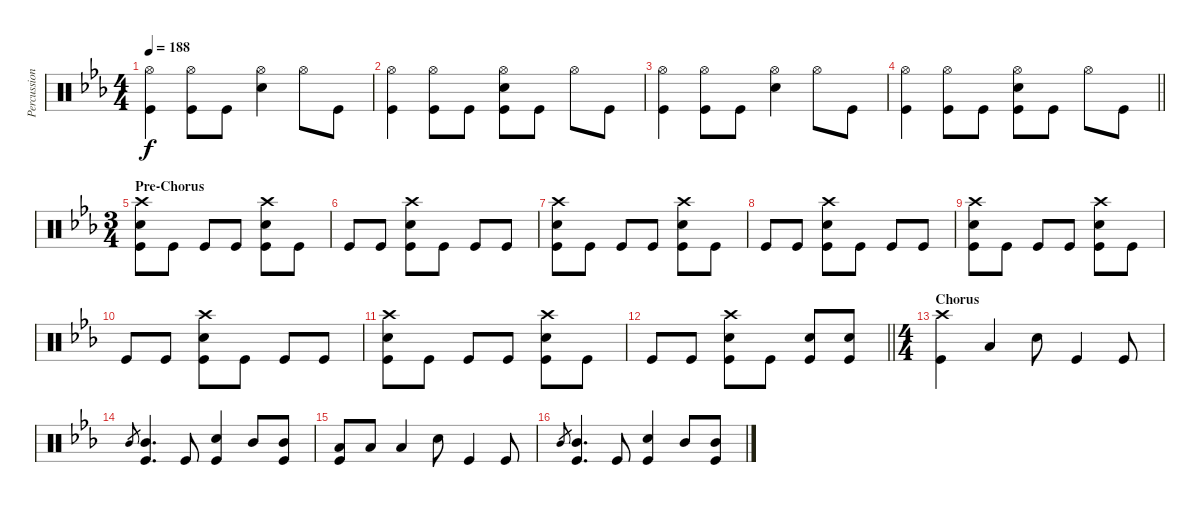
\track ("Percussion" "Percussion") {instrument percussion}
\staff {score}
\articulation defaults
\ts (4 4)
\tempo 188
\clef neutral
\ks eb
("Hi-Hat (open)" "Kick (hit)").4{dy f} ("Hi-Hat (open)" "Kick (hit)").8 "Kick (hit)".8 ("Hi-Hat (open)" "Electric Snare (hit)").4 "Hi-Hat (open)".8 "Kick (hit)".8 |
("Hi-Hat (open)" "Kick (hit)").4 ("Hi-Hat (open)" "Kick (hit)").8 "Kick (hit)".8 ("Hi-Hat (open)" "Electric Snare (hit)" "Kick (hit)").8 "Kick (hit)".8 "Hi-Hat (open)".8 "Kick (hit)".8 |
("Hi-Hat (open)" "Kick (hit)").4 ("Hi-Hat (open)" "Kick (hit)").8 "Kick (hit)".8 ("Hi-Hat (open)" "Electric Snare (hit)").4 "Hi-Hat (open)".8 "Kick (hit)".8 |
\barLineRight lightlight
("Hi-Hat (open)" "Kick (hit)").4 ("Hi-Hat (open)" "Kick (hit)").8 "Kick (hit)".8 ("Hi-Hat (open)" "Electric Snare (hit)" "Kick (hit)").8 "Kick (hit)".8 "Hi-Hat (open)".8 "Kick (hit)".8 |
\ts (3 4)
\section ("" "Pre-Chorus")
("Crash high (hit)" "Electric Snare (hit)" "Kick (hit)").8 "Kick (hit)".8 "Kick (hit)".8 "Kick (hit)".8 ("Crash high (hit)" "Electric Snare (hit)" "Kick (hit)").8 "Kick (hit)".8 |
"Kick (hit)".8 "Kick (hit)".8 ("Crash high (hit)" "Electric Snare (hit)" "Kick (hit)").8 "Kick (hit)".8 "Kick (hit)".8 "Kick (hit)".8 |
("Crash high (hit)" "Electric Snare (hit)" "Kick (hit)").8 "Kick (hit)".8 "Kick (hit)".8 "Kick (hit)".8 ("Crash high (hit)" "Electric Snare (hit)" "Kick (hit)").8 "Kick (hit)".8 |
"Kick (hit)".8 "Kick (hit)".8 ("Crash high (hit)" "Electric Snare (hit)" "Kick (hit)").8 "Kick (hit)".8 "Kick (hit)".8 "Kick (hit)".8 |
("Crash high (hit)" "Electric Snare (hit)" "Kick (hit)").8 "Kick (hit)".8 "Kick (hit)".8 "Kick (hit)".8 ("Crash high (hit)" "Electric Snare (hit)" "Kick (hit)").8 "Kick (hit)".8 |
"Kick (hit)".8 "Kick (hit)".8 ("Crash high (hit)" "Electric Snare (hit)" "Kick (hit)").8 "Kick (hit)".8 "Kick (hit)".8 "Kick (hit)".8 |
("Crash high (hit)" "Electric Snare (hit)" "Kick (hit)").8 "Kick (hit)".8 "Kick (hit)".8 "Kick (hit)".8 ("Crash high (hit)" "Electric Snare (hit)" "Kick (hit)").8 "Kick (hit)".8 |
\barLineRight lightlight "Kick (hit)".8 "Kick (hit)".8
("Crash high (hit)" "Electric Snare (hit)" "Kick (hit)").8 "Kick (hit)".8 ("Electric Snare (hit)" "Kick (hit)").8 ("Electric Snare (hit)" "Kick (hit)").8 |
\ts (4 4)
\section ("" "Chorus")
("Crash high (hit)" "Kick (hit)").4 "Low Tom (hit)".4 "Electric Snare (hit)".8 "Kick (hit)".4 "Kick (hit)".8 |
"Mid Tom (hit)".8{gr} ("Mid Tom (hit)" "Kick (hit)").4{d} "Kick (hit)".8 ("Electric Snare (hit)" "Kick (hit)").4 "Mid Tom (hit)".8 ("Mid Tom (hit)" "Kick (hit)").8 |
("Low Tom (hit)" "Kick (hit)").8 "Low Tom (hit)".8 "Low Tom (hit)".4 "Electric Snare (hit)".8 "Kick (hit)".4 "Kick (hit)".8 |
"Mid Tom (hit)".8{gr} ("Mid Tom (hit)" "Kick (hit)").4{d} "Kick (hit)".8 ("Electric Snare (hit)" "Kick (hit)").4 "Mid Tom (hit)".8 ("Mid Tom (hit)" "Kick (hit)").8
